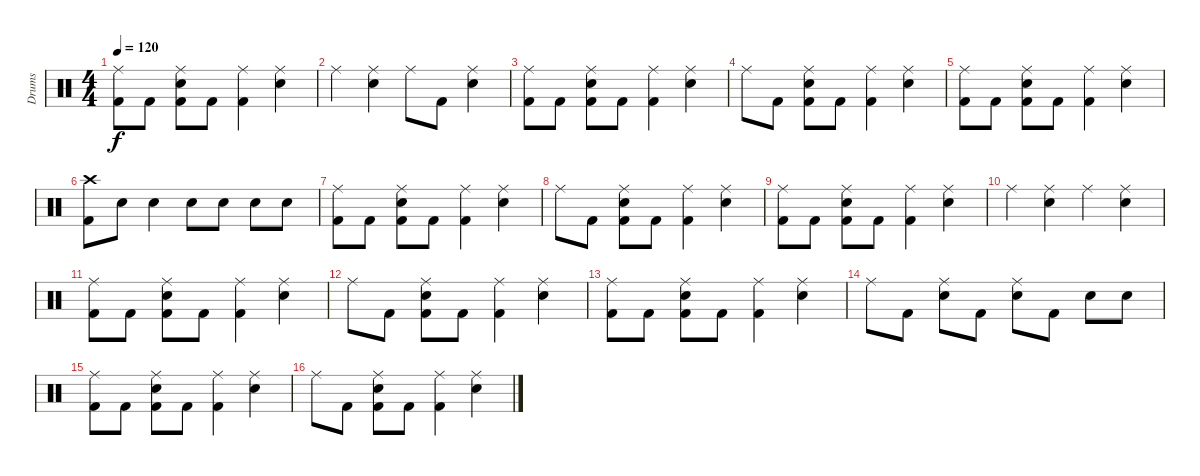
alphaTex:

\track ("Drums" "Drums") {instrument percussion}
\staff {score}
\articulation defaults
\ts (4 4)
\tempo 120
\clef neutral
\ks c
("Ride (middle)" "Kick (hit) 2").8{dy f} "Kick (hit) 2".8 ("Ride (middle)" "Electric Snare (hit)" "Kick (hit) 2").8 "Kick (hit) 2".8 ("Ride (middle)" "Kick (hit) 2").4 ("Ride (middle)" "Electric Snare (hit)").4 |
"Ride (middle)".4 ("Ride (middle)" "Electric Snare (hit)").4 "Ride (middle)".8 "Kick (hit) 2".8 ("Ride (middle)" "Electric Snare (hit)").4 |
("Ride (middle)" "Kick (hit) 2").8 "Kick (hit) 2".8 ("Ride (middle)" "Electric Snare (hit)" "Kick (hit) 2").8 "Kick (hit) 2".8 ("Ride (middle)" "Kick (hit) 2").4 ("Ride (middle)" "Electric Snare (hit)").4 |
"Ride (middle)".8 "Kick (hit) 2".8 ("Ride (middle)" "Electric Snare (hit)" "Kick (hit) 2").8 "Kick (hit) 2".8 ("Ride (middle)" "Kick (hit) 2").4 ("Ride (middle)" "Electric Snare (hit)").4 |
("Ride (middle)" "Kick (hit) 2").8 "Kick (hit) 2".8 ("Ride (middle)" "Electric Snare (hit)" "Kick (hit) 2").8 "Kick (hit) 2".8 ("Ride (middle)" "Kick (hit) 2").4 ("Ride (middle)" "Electric Snare (hit)").4 |
("Crash high (hit)" "Kick (hit) 2").8 "Electric Snare (hit)".8 "Electric Snare (hit)".4 "Electric Snare (hit)".8 "Electric Snare (hit)".8 "Electric Snare (hit)".8 "Electric Snare (hit)".8 |
("Ride (middle)" "Kick (hit) 2").8 "Kick (hit) 2".8 ("Ride (middle)" "Electric Snare (hit)" "Kick (hit) 2").8 "Kick (hit) 2".8 ("Ride (middle)" "Kick (hit) 2").4 ("Ride (middle)" "Electric Snare (hit)").4 |
"Ride (middle)".8 "Kick (hit) 2".8 ("Ride (middle)" "Electric Snare (hit)" "Kick (hit) 2").8 "Kick (hit) 2".8 ("Ride (middle)" "Kick (hit) 2").4 ("Ride (middle)" "Electric Snare (hit)").4 |
("Ride (middle)" "Kick (hit) 2").8 "Kick (hit) 2".8 ("Ride (middle)" "Electric Snare (hit)" "Kick (hit) 2").8 "Kick (hit) 2".8 ("Ride (middle)" "Kick (hit) 2").4 ("Ride (middle)" "Electric Snare (hit)").4 |
"Ride (middle)".4 ("Ride (middle)" "Electric Snare (hit)").4 "Ride (middle)".4 ("Ride (middle)" "Electric Snare (hit)").4 |
("Ride (middle)" "Kick (hit) 2").8 "Kick (hit) 2".8 ("Ride (middle)" "Electric Snare (hit)" "Kick (hit) 2").8 "Kick (hit) 2".8 ("Ride (middle)" "Kick (hit) 2").4 ("Ride (middle)" "Electric Snare (hit)").4 |
"Ride (middle)".8 "Kick (hit) 2".8 ("Ride (middle)" "Electric Snare (hit)" "Kick (hit) 2").8 "Kick (hit) 2".8 ("Ride (middle)" "Kick (hit) 2").4 ("Ride (middle)" "Electric Snare (hit)").4 |
("Ride (middle)" "Kick (hit) 2").8 "Kick (hit) 2".8 ("Ride (middle)" "Electric Snare (hit)" "Kick (hit) 2").8 "Kick (hit) 2".8 ("Ride (middle)" "Kick (hit) 2").4 ("Ride (middle)" "Electric Snare (hit)").4 |
"Ride (middle)".8 "Kick (hit) 2".8 ("Ride (middle)" "Electric Snare (hit)").8 "Kick (hit) 2".8 ("Ride (middle)" "Electric Snare (hit)").8 "Kick (hit) 2".8 "Electric Snare (hit)".8 "Electric Snare (hit)".8 |
("Ride (middle)" "Kick (hit) 2").8 "Kick (hit) 2".8 ("Ride (middle)" "Electric Snare (hit)" "Kick (hit) 2").8 "Kick (hit) 2".8 ("Ride (middle)" "Kick (hit) 2").4 ("Ride (middle)" "Electric Snare (hit)").4 |
"Ride (middle)".8 "Kick (hit) 2".8 ("Ride (middle)" "Electric Snare (hit)" "Kick (hit) 2").8 "Kick (hit) 2".8 ("Ride (middle)" "Kick (hit) 2").4 ("Ride (middle)" "Electric Snare (hit)").4
